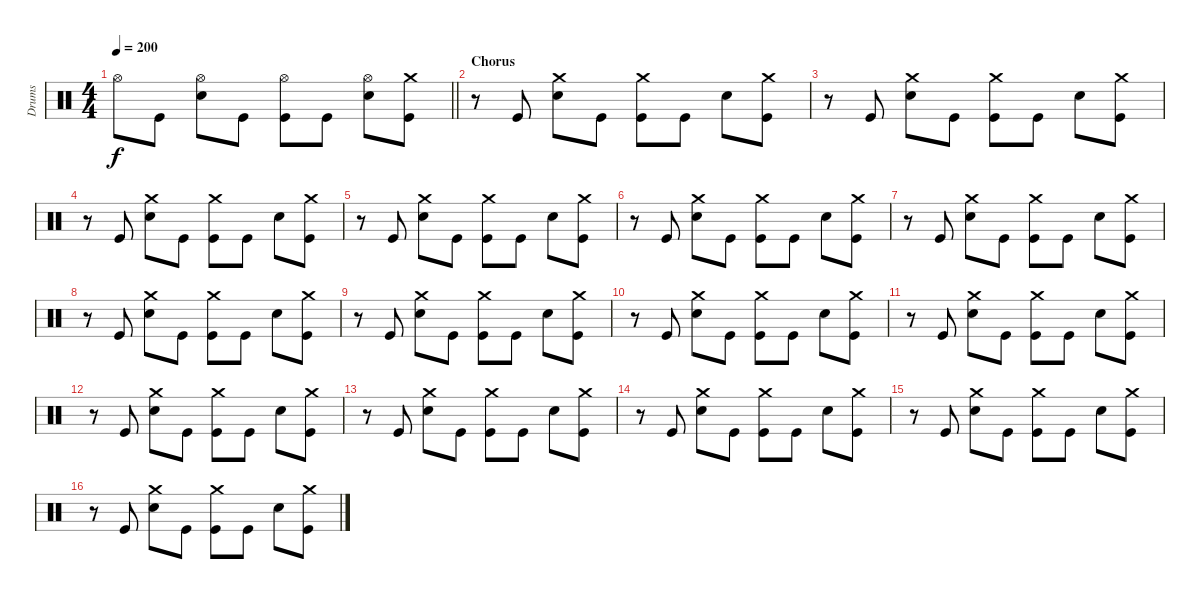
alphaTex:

\track ("Drums" "Drums") {instrument percussion}
\staff {score}
\articulation defaults
\ts (4 4)
\tempo 200
\clef neutral
\barLineRight lightlight
\ks c "Hi-Hat (open)".8{dy f} "Kick (hit)".8
("Hi-Hat (open)" "Snare (hit) 2").8 "Kick (hit)".8 ("Hi-Hat (open)" "Kick (hit)").8 "Kick (hit)".8 ("Hi-Hat (open)" "Snare (hit) 2").8 ("Crash medium (hit)" "Kick (hit)").8 |
\section ("" "Chorus")
r.8 "Kick (hit)".8 ("Crash medium (hit)" "Snare (hit) 2").8 "Kick (hit)".8 ("Crash medium (hit)" "Kick (hit)").8 "Kick (hit)".8 "Snare (hit) 2".8 ("Crash medium (hit)" "Kick (hit)").8 |
r.8 "Kick (hit)".8 ("Crash medium (hit)" "Snare (hit) 2").8 "Kick (hit)".8 ("Crash medium (hit)" "Kick (hit)").8 "Kick (hit)".8 "Snare (hit) 2".8 ("Crash medium (hit)" "Kick (hit)").8 |
r.8 "Kick (hit)".8 ("Crash medium (hit)" "Snare (hit) 2").8 "Kick (hit)".8 ("Crash medium (hit)" "Kick (hit)").8 "Kick (hit)".8 "Snare (hit) 2".8 ("Crash medium (hit)" "Kick (hit)").8 |
r.8 "Kick (hit)".8 ("Crash medium (hit)" "Snare (hit) 2").8 "Kick (hit)".8 ("Crash medium (hit)" "Kick (hit)").8 "Kick (hit)".8 "Snare (hit) 2".8 ("Crash medium (hit)" "Kick (hit)").8 |
r.8 "Kick (hit)".8 ("Crash medium (hit)" "Snare (hit) 2").8 "Kick (hit)".8 ("Crash medium (hit)" "Kick (hit)").8 "Kick (hit)".8 "Snare (hit) 2".8 ("Crash medium (hit)" "Kick (hit)").8 |
r.8 "Kick (hit)".8 ("Crash medium (hit)" "Snare (hit) 2").8 "Kick (hit)".8 ("Crash medium (hit)" "Kick (hit)").8 "Kick (hit)".8 "Snare (hit) 2".8 ("Crash medium (hit)" "Kick (hit)").8 |
r.8 "Kick (hit)".8 ("Crash medium (hit)" "Snare (hit) 2").8 "Kick (hit)".8 ("Crash medium (hit)" "Kick (hit)").8 "Kick (hit)".8 "Snare (hit) 2".8 ("Crash medium (hit)" "Kick (hit)").8 |
r.8 "Kick (hit)".8 ("Crash medium (hit)" "Snare (hit) 2").8 "Kick (hit)".8 ("Crash medium (hit)" "Kick (hit)").8 "Kick (hit)".8 "Snare (hit) 2".8 ("Crash medium (hit)" "Kick (hit)").8 |
r.8 "Kick (hit)".8 ("Crash medium (hit)" "Snare (hit) 2").8 "Kick (hit)".8 ("Crash medium (hit)" "Kick (hit)").8 "Kick (hit)".8 "Snare (hit) 2".8 ("Crash medium (hit)" "Kick (hit)").8 |
r.8 "Kick (hit)".8 ("Crash medium (hit)" "Snare (hit) 2").8 "Kick (hit)".8 ("Crash medium (hit)" "Kick (hit)").8 "Kick (hit)".8 "Snare (hit) 2".8 ("Crash medium (hit)" "Kick (hit)").8 |
r.8 "Kick (hit)".8 ("Crash medium (hit)" "Snare (hit) 2").8 "Kick (hit)".8 ("Crash medium (hit)" "Kick (hit)").8 "Kick (hit)".8 "Snare (hit) 2".8 ("Crash medium (hit)" "Kick (hit)").8 |
r.8 "Kick (hit)".8 ("Crash medium (hit)" "Snare (hit) 2").8 "Kick (hit)".8 ("Crash medium (hit)" "Kick (hit)").8 "Kick (hit)".8 "Snare (hit) 2".8 ("Crash medium (hit)" "Kick (hit)").8 |
r.8 "Kick (hit)".8 ("Crash medium (hit)" "Snare (hit) 2").8 "Kick (hit)".8 ("Crash medium (hit)" "Kick (hit)").8 "Kick (hit)".8 "Snare (hit) 2".8 ("Crash medium (hit)" "Kick (hit)").8 |
r.8 "Kick (hit)".8 ("Crash medium (hit)" "Snare (hit) 2").8 "Kick (hit)".8 ("Crash medium (hit)" "Kick (hit)").8 "Kick (hit)".8 "Snare (hit) 2".8 ("Crash medium (hit)" "Kick (hit)").8 |
r.8 "Kick (hit)".8 ("Crash medium (hit)" "Snare (hit) 2").8 "Kick (hit)".8 ("Crash medium (hit)" "Kick (hit)").8 "Kick (hit)".8 "Snare (hit) 2".8 ("Crash medium (hit)" "Kick (hit)").8
